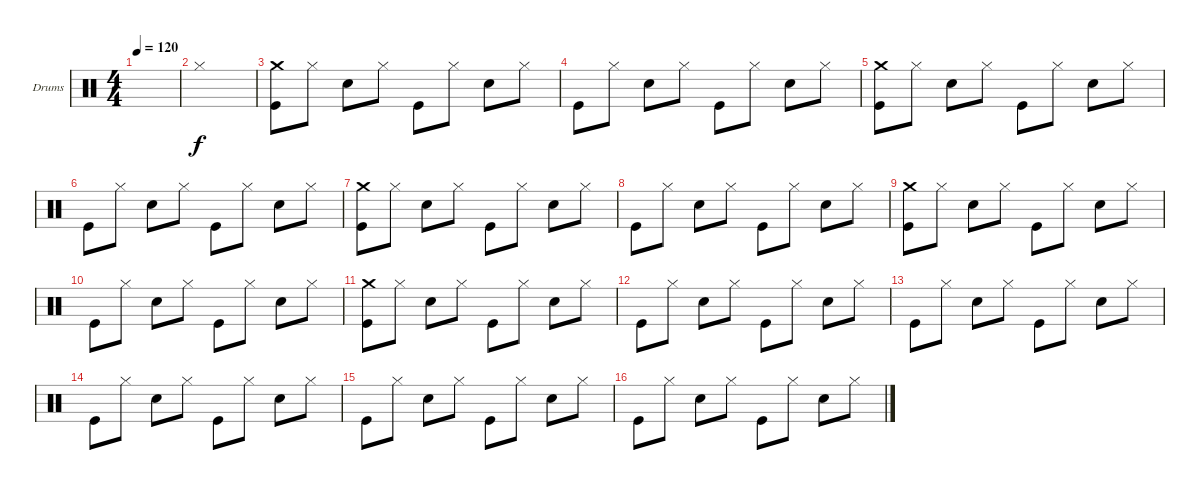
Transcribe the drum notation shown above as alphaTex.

\defaultSystemsLayout 4
\bracketExtendMode groupsimilarinstruments
\firstSystemTrackNameOrientation horizontal
\otherSystemsTrackNameOrientation horizontal
\track ("Е. Кулаков" "Drums") {instrument percussion}
\staff {score}
\articulation defaults
\ts (4 4)
\tempo 120
\clef neutral
\scale
0.333333
\ks c
|
\scale
0.333333 "Hi-Hat (closed)".1 |
\scale
0.333333 ("Kick (hit)" "Crash medium (hit)").8 "Hi-Hat (closed)".8 "Snare (hit) 2".8 "Hi-Hat (closed)".8 "Kick (hit)".8 "Hi-Hat (closed)".8 "Snare (hit) 2".8 "Hi-Hat (closed)".8 |
\scale
0.333333 "Kick (hit)".8 "Hi-Hat (closed)".8 "Snare (hit) 2".8 "Hi-Hat (closed)".8 "Kick (hit)".8 "Hi-Hat (closed)".8 "Snare (hit) 2".8 "Hi-Hat (closed)".8 |
\scale
0.333333 ("Kick (hit)" "Crash medium (hit)").8 "Hi-Hat (closed)".8 "Snare (hit) 2".8 "Hi-Hat (closed)".8 "Kick (hit)".8 "Hi-Hat (closed)".8 "Snare (hit) 2".8 "Hi-Hat (closed)".8 |
\scale
0.333333 "Kick (hit)".8 "Hi-Hat (closed)".8 "Snare (hit) 2".8 "Hi-Hat (closed)".8 "Kick (hit)".8 "Hi-Hat (closed)".8 "Snare (hit) 2".8 "Hi-Hat (closed)".8 |
\scale
0.333333 ("Kick (hit)" "Crash medium (hit)").8 "Hi-Hat (closed)".8 "Snare (hit) 2".8 "Hi-Hat (closed)".8 "Kick (hit)".8 "Hi-Hat (closed)".8 "Snare (hit) 2".8 "Hi-Hat (closed)".8 |
\scale
0.333333 "Kick (hit)".8 "Hi-Hat (closed)".8 "Snare (hit) 2".8 "Hi-Hat (closed)".8 "Kick (hit)".8 "Hi-Hat (closed)".8 "Snare (hit) 2".8 "Hi-Hat (closed)".8 |
\scale
0.333333 ("Kick (hit)" "Crash medium (hit)").8 "Hi-Hat (closed)".8 "Snare (hit) 2".8 "Hi-Hat (closed)".8 "Kick (hit)".8 "Hi-Hat (closed)".8 "Snare (hit) 2".8 "Hi-Hat (closed)".8 |
\scale
0.333333 "Kick (hit)".8 "Hi-Hat (closed)".8 "Snare (hit) 2".8 "Hi-Hat (closed)".8 "Kick (hit)".8 "Hi-Hat (closed)".8 "Snare (hit) 2".8 "Hi-Hat (closed)".8 |
("Kick (hit)" "Crash medium (hit)").8 "Hi-Hat (closed)".8 "Snare (hit) 2".8 "Hi-Hat (closed)".8 "Kick (hit)".8 "Hi-Hat (closed)".8 "Snare (hit) 2".8 "Hi-Hat (closed)".8 |
"Kick (hit)".8 "Hi-Hat (closed)".8 "Snare (hit) 2".8 "Hi-Hat (closed)".8 "Kick (hit)".8 "Hi-Hat (closed)".8 "Snare (hit) 2".8 "Hi-Hat (closed)".8 |
"Kick (hit)".8 "Hi-Hat (closed)".8 "Snare (hit) 2".8 "Hi-Hat (closed)".8 "Kick (hit)".8 "Hi-Hat (closed)".8 "Snare (hit) 2".8 "Hi-Hat (closed)".8 |
"Kick (hit)".8 "Hi-Hat (closed)".8 "Snare (hit) 2".8 "Hi-Hat (closed)".8 "Kick (hit)".8 "Hi-Hat (closed)".8 "Snare (hit) 2".8 "Hi-Hat (closed)".8 |
"Kick (hit)".8 "Hi-Hat (closed)".8 "Snare (hit) 2".8 "Hi-Hat (closed)".8 "Kick (hit)".8 "Hi-Hat (closed)".8 "Snare (hit) 2".8 "Hi-Hat (closed)".8 |
"Kick (hit)".8 "Hi-Hat (closed)".8 "Snare (hit) 2".8 "Hi-Hat (closed)".8 "Kick (hit)".8 "Hi-Hat (closed)".8 "Snare (hit) 2".8 "Hi-Hat (closed)".8
